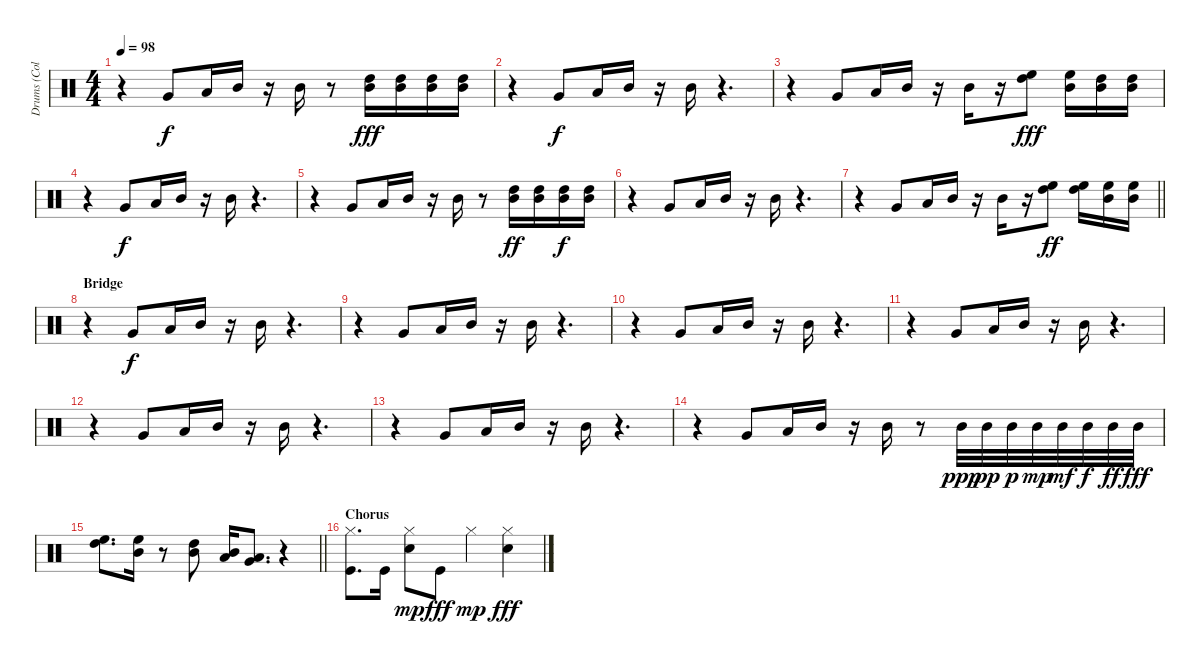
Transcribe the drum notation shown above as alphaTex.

\track ("Drums (Collins)" "Drums (Col") {instrument percussion}
\staff {score}
\articulation defaults
\ts (4 4)
\tempo 98
\clef neutral
\ks c
r.4{dy f} "Very Low Tom (hit)".8 "Low Tom (hit)".16 "Mid Tom (hit)".16 r.16 "Mid Tom (hit)".16 r.8 ("High Tom (hit)" "Mid Tom (hit)").16{dy fff} ("High Tom (hit)" "Mid Tom (hit)").16 ("High Tom (hit)" "Mid Tom (hit)").16 ("High Tom (hit)" "Mid Tom (hit)").16 |
r.4 "Very Low Tom (hit)".8{dy f} "Low Tom (hit)".16 "Mid Tom (hit)".16 r.16 "Mid Tom (hit)".16 r.4{d} |
r.4 "Very Low Tom (hit)".8 "Low Tom (hit)".16 "Mid Tom (hit)".16 r.16 "Mid Tom (hit)".16 r.16 ("High Floor Tom (hit)" "High Tom (hit)").8{dy fff} ("Mid Tom (hit)" "High Floor Tom (hit)").16 ("Mid Tom (hit)" "High Tom (hit)").16 ("Mid Tom (hit)" "High Tom (hit)").16 |
r.4 "Very Low Tom (hit)".8{dy f} "Low Tom (hit)".16 "Mid Tom (hit)".16 r.16 "Mid Tom (hit)".16 r.4{d} |
r.4 "Very Low Tom (hit)".8 "Low Tom (hit)".16 "Mid Tom (hit)".16 r.16 "Mid Tom (hit)".16 r.8 ("High Tom (hit)" "Mid Tom (hit)").16{dy ff} ("Mid Tom (hit)" "High Tom (hit)").16 ("High Tom (hit)" "Mid Tom (hit)").16{dy f} ("High Tom (hit)" "Mid Tom (hit)").16 |
r.4 "Very Low Tom (hit)".8 "Low Tom (hit)".16 "Mid Tom (hit)".16 r.16 "Mid Tom (hit)".16 r.4{d} |
\barLineRight lightlight
r.4 "Very Low Tom (hit)".8 "Low Tom (hit)".16 "Mid Tom (hit)".16 r.16 "Mid Tom (hit)".16 r.16 ("High Floor Tom (hit)" "High Tom (hit)").8{dy ff} ("High Floor Tom (hit)" "High Tom (hit)").16 ("High Floor Tom (hit)" "Mid Tom (hit)").16 ("High Floor Tom (hit)" "Mid Tom (hit)").16 |
\section ("" "Bridge")
r.4 "Very Low Tom (hit)".8{dy f} "Low Tom (hit)".16 "Mid Tom (hit)".16 r.16 "Mid Tom (hit)".16 r.4{d} |
r.4 "Very Low Tom (hit)".8 "Low Tom (hit)".16 "Mid Tom (hit)".16 r.16 "Mid Tom (hit)".16 r.4{d} |
r.4 "Very Low Tom (hit)".8 "Low Tom (hit)".16 "Mid Tom (hit)".16 r.16 "Mid Tom (hit)".16 r.4{d} |
r.4 "Very Low Tom (hit)".8 "Low Tom (hit)".16 "Mid Tom (hit)".16 r.16 "Mid Tom (hit)".16 r.4{d} |
r.4 "Very Low Tom (hit)".8 "Low Tom (hit)".16 "Mid Tom (hit)".16 r.16 "Mid Tom (hit)".16 r.4{d} |
r.4 "Very Low Tom (hit)".8 "Low Tom (hit)".16 "Mid Tom (hit)".16 r.16 "Mid Tom (hit)".16 r.4{d} |
r.4 "Very Low Tom (hit)".8 "Low Tom (hit)".16 "Mid Tom (hit)".16 r.16 "Mid Tom (hit)".16 r.8 "Mid Tom (hit)".32{dy ppp} "Mid Tom (hit)".32{dy pp} "Mid Tom (hit)".32{dy p} "Mid Tom (hit)".32{dy mp} "Mid Tom (hit)".32{dy mf} "Mid Tom (hit)".32{dy f} "Mid Tom (hit)".32{dy ff} "Mid Tom (hit)".32{dy fff} |
\barLineRight lightlight
("High Tom (hit)" "High Floor Tom (hit)").8{d} ("Mid Tom (hit)" "High Floor Tom (hit)").16 r.8 ("Mid Tom (hit)" "High Tom (hit)").8 ("Low Tom (hit)" "Mid Tom (hit)").16 ("Very Low Tom (hit)" "Low Tom (hit)").8{d} r.4 |
\section ("" "Chorus")
("Hi-Hat (closed)" "Kick (hit)").8{d} "Kick (hit)".16 ("Electric Snare (hit)" "Hi-Hat (closed)").8{dy mp} "Kick (hit)".8{dy fff} "Hi-Hat (closed)".4{dy mp} ("Hi-Hat (closed)" "Electric Snare (hit)").4{dy fff}
